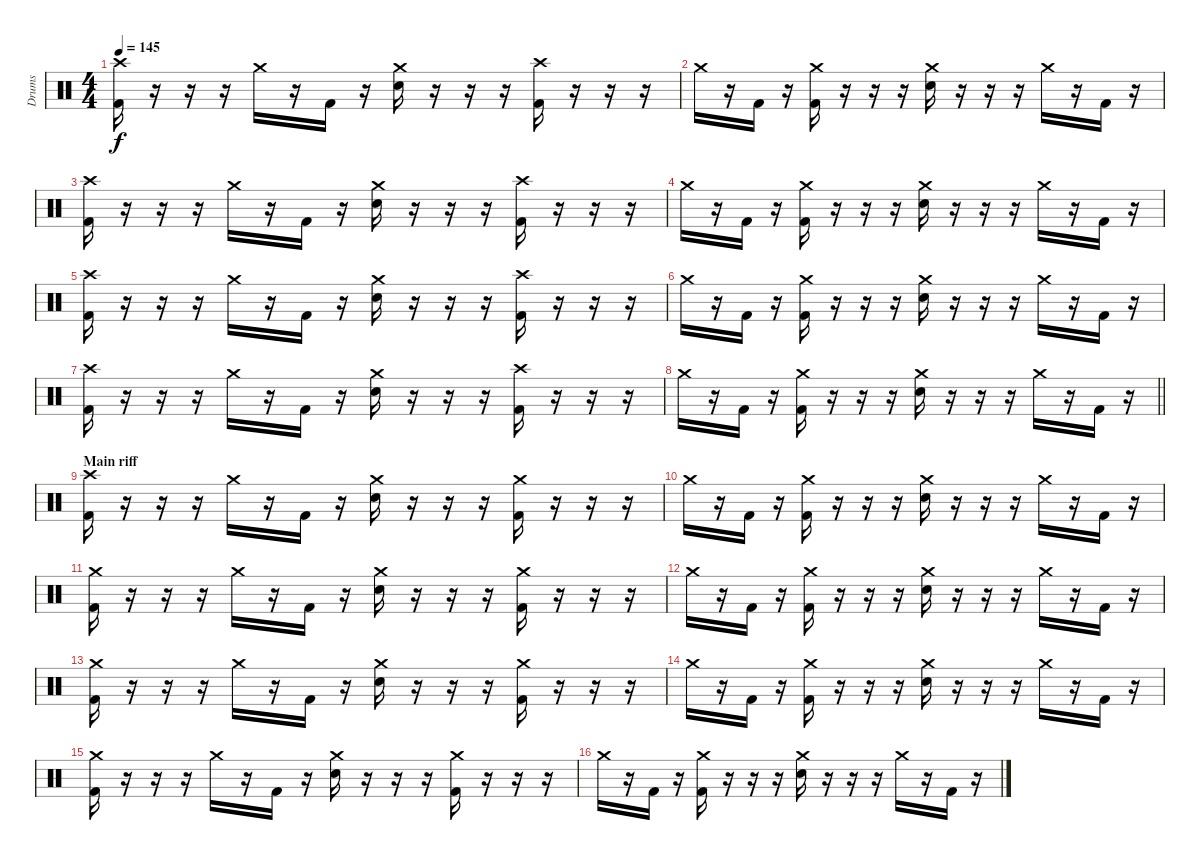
\track ("Drums" "Drums") {instrument percussion}
\staff {score}
\articulation defaults
\ts (4 4)
\tempo 145
\clef neutral
\ks c
("Crash high (hit)" "Kick (hit) 2").16{dy f} r.16 r.16 r.16 "Crash medium (hit)".16 r.16 "Kick (hit) 2".16 r.16 ("Crash medium (hit)" "Electric Snare (hit)").16 r.16 r.16 r.16 ("Crash high (hit)" "Kick (hit) 2").16 r.16 r.16 r.16 |
"Crash medium (hit)".16 r.16 "Kick (hit) 2".16 r.16 ("Crash medium (hit)" "Kick (hit) 2").16 r.16 r.16 r.16 ("Crash medium (hit)" "Electric Snare (hit)").16 r.16 r.16 r.16 "Crash medium (hit)".16 r.16 "Kick (hit) 2".16 r.16 |
("Crash high (hit)" "Kick (hit) 2").16 r.16 r.16 r.16 "Crash medium (hit)".16 r.16 "Kick (hit) 2".16 r.16 ("Crash medium (hit)" "Electric Snare (hit)").16 r.16 r.16 r.16 ("Crash high (hit)" "Kick (hit) 2").16 r.16 r.16 r.16 |
"Crash medium (hit)".16 r.16 "Kick (hit) 2".16 r.16 ("Crash medium (hit)" "Kick (hit) 2").16 r.16 r.16 r.16 ("Crash medium (hit)" "Electric Snare (hit)").16 r.16 r.16 r.16 "Crash medium (hit)".16 r.16 "Kick (hit) 2".16 r.16 |
("Crash high (hit)" "Kick (hit) 2").16 r.16 r.16 r.16 "Crash medium (hit)".16 r.16 "Kick (hit) 2".16 r.16 ("Crash medium (hit)" "Electric Snare (hit)").16 r.16 r.16 r.16 ("Crash high (hit)" "Kick (hit) 2").16 r.16 r.16 r.16 |
"Crash medium (hit)".16 r.16 "Kick (hit) 2".16 r.16 ("Crash medium (hit)" "Kick (hit) 2").16 r.16 r.16 r.16 ("Crash medium (hit)" "Electric Snare (hit)").16 r.16 r.16 r.16 "Crash medium (hit)".16 r.16 "Kick (hit) 2".16 r.16 |
("Crash high (hit)" "Kick (hit) 2").16 r.16 r.16 r.16 "Crash medium (hit)".16 r.16 "Kick (hit) 2".16 r.16 ("Crash medium (hit)" "Electric Snare (hit)").16 r.16 r.16 r.16 ("Crash high (hit)" "Kick (hit) 2").16 r.16 r.16 r.16 |
\barLineRight lightlight "Crash medium (hit)".16
r.16 "Kick (hit) 2".16 r.16 ("Crash medium (hit)" "Kick (hit) 2").16 r.16 r.16 r.16 ("Crash medium (hit)" "Electric Snare (hit)").16 r.16 r.16 r.16 "Crash medium (hit)".16 r.16 "Kick (hit) 2".16 r.16 |
\section ("" "Main riff")
("Crash high (hit)" "Kick (hit) 2").16 r.16 r.16 r.16 "Crash medium (hit)".16 r.16 "Kick (hit) 2".16 r.16 ("Crash medium (hit)" "Electric Snare (hit)").16 r.16 r.16 r.16 ("Crash medium (hit)" "Kick (hit) 2").16 r.16 r.16 r.16 |
"Crash medium (hit)".16 r.16 "Kick (hit) 2".16 r.16 ("Crash medium (hit)" "Kick (hit) 2").16 r.16 r.16 r.16 ("Crash medium (hit)" "Electric Snare (hit)").16 r.16 r.16 r.16 "Crash medium (hit)".16 r.16 "Kick (hit) 2".16 r.16 |
("Crash medium (hit)" "Kick (hit) 2").16 r.16 r.16 r.16 "Crash medium (hit)".16 r.16 "Kick (hit) 2".16 r.16 ("Crash medium (hit)" "Electric Snare (hit)").16 r.16 r.16 r.16 ("Crash medium (hit)" "Kick (hit) 2").16 r.16 r.16 r.16 |
"Crash medium (hit)".16 r.16 "Kick (hit) 2".16 r.16 ("Crash medium (hit)" "Kick (hit) 2").16 r.16 r.16 r.16 ("Crash medium (hit)" "Electric Snare (hit)").16 r.16 r.16 r.16 "Crash medium (hit)".16 r.16 "Kick (hit) 2".16 r.16 |
("Crash medium (hit)" "Kick (hit) 2").16 r.16 r.16 r.16 "Crash medium (hit)".16 r.16 "Kick (hit) 2".16 r.16 ("Crash medium (hit)" "Electric Snare (hit)").16 r.16 r.16 r.16 ("Crash medium (hit)" "Kick (hit) 2").16 r.16 r.16 r.16 |
"Crash medium (hit)".16 r.16 "Kick (hit) 2".16 r.16 ("Crash medium (hit)" "Kick (hit) 2").16 r.16 r.16 r.16 ("Crash medium (hit)" "Electric Snare (hit)").16 r.16 r.16 r.16 "Crash medium (hit)".16 r.16 "Kick (hit) 2".16 r.16 |
("Crash medium (hit)" "Kick (hit) 2").16 r.16 r.16 r.16 "Crash medium (hit)".16 r.16 "Kick (hit) 2".16 r.16 ("Crash medium (hit)" "Electric Snare (hit)").16 r.16 r.16 r.16 ("Crash medium (hit)" "Kick (hit) 2").16 r.16 r.16 r.16 |
"Crash medium (hit)".16 r.16 "Kick (hit) 2".16 r.16 ("Crash medium (hit)" "Kick (hit) 2").16 r.16 r.16 r.16 ("Crash medium (hit)" "Electric Snare (hit)").16 r.16 r.16 r.16 "Crash medium (hit)".16 r.16 "Kick (hit) 2".16 r.16
